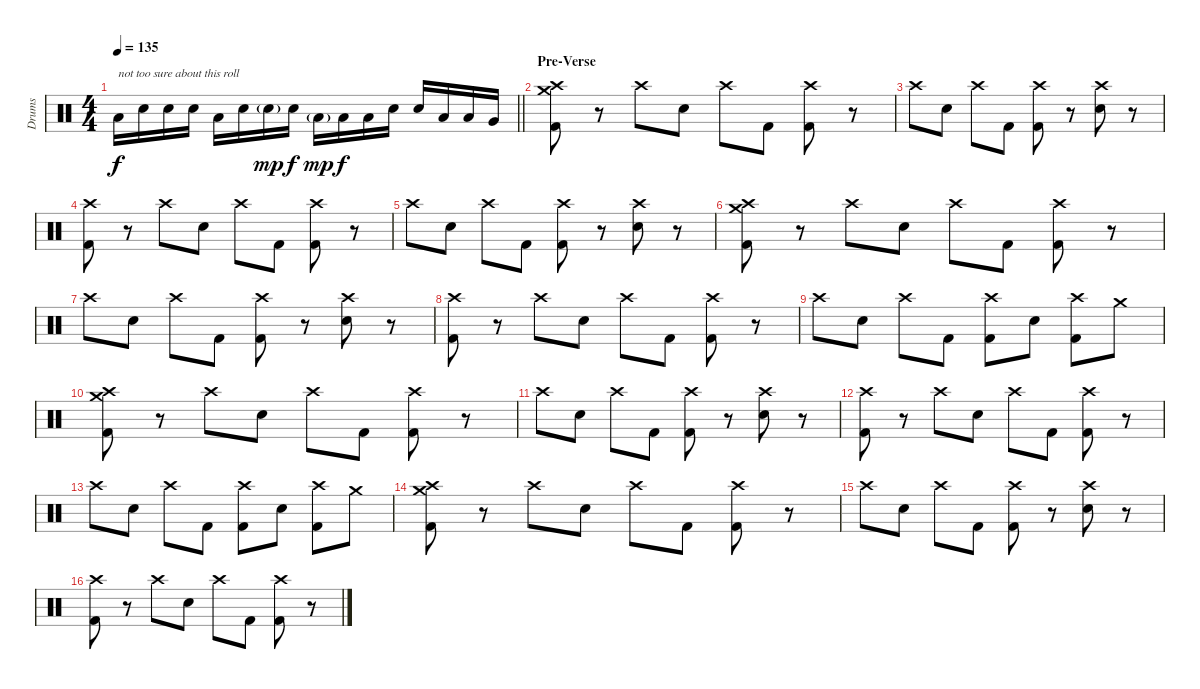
\track ("Drums" "Drums") {instrument percussion}
\staff {score}
\articulation defaults
\ts (4 4)
\tempo 135
\clef neutral
\barLineRight lightlight
\ks c "Low Tom (hit)".16{txt "not too sure about this roll" dy f} "Electric Snare (hit)".16 "Electric Snare (hit)".16 "Electric Snare (hit)".16 "Low Tom (hit)".16 "Electric Snare (hit)".16 "Electric Snare (hit)"{g}.16{dy mp} "Electric Snare (hit)".16{dy f} "Low Tom (hit)"{g}.16{dy mp} "Low Tom (hit)".16{dy f} "Low Tom (hit)".16 "Electric Snare (hit)".16 "Electric Snare (hit)".16 "Low Tom (hit)".16 "Low Tom (hit)".16 "Very Low Tom (hit)".16
|
\section ("" "Pre-Verse")
("Crash high (hit)" "Crash medium (hit)" "Kick (hit) 2").8 r.8 "Crash high (hit)".8 "Electric Snare (hit)".8 "Crash high (hit)".8 "Kick (hit) 2".8 ("Crash high (hit)" "Kick (hit) 2").8 r.8 |
"Crash high (hit)".8 "Electric Snare (hit)".8 "Crash high (hit)".8 "Kick (hit) 2".8 ("Crash high (hit)" "Kick (hit) 2").8 r.8 ("Crash high (hit)" "Electric Snare (hit)").8 r.8 |
("Crash high (hit)" "Kick (hit) 2").8 r.8 "Crash high (hit)".8 "Electric Snare (hit)".8 "Crash high (hit)".8 "Kick (hit) 2".8 ("Crash high (hit)" "Kick (hit) 2").8 r.8 |
"Crash high (hit)".8 "Electric Snare (hit)".8 "Crash high (hit)".8 "Kick (hit) 2".8 ("Crash high (hit)" "Kick (hit) 2").8 r.8 ("Crash high (hit)" "Electric Snare (hit)").8 r.8 |
("Crash high (hit)" "Crash medium (hit)" "Kick (hit) 2").8 r.8 "Crash high (hit)".8 "Electric Snare (hit)".8 "Crash high (hit)".8 "Kick (hit) 2".8 ("Crash high (hit)" "Kick (hit) 2").8 r.8 |
"Crash high (hit)".8 "Electric Snare (hit)".8 "Crash high (hit)".8 "Kick (hit) 2".8 ("Crash high (hit)" "Kick (hit) 2").8 r.8 ("Crash high (hit)" "Electric Snare (hit)").8 r.8 |
("Crash high (hit)" "Kick (hit) 2").8 r.8 "Crash high (hit)".8 "Electric Snare (hit)".8 "Crash high (hit)".8 "Kick (hit) 2".8 ("Crash high (hit)" "Kick (hit) 2").8 r.8 |
"Crash high (hit)".8 "Electric Snare (hit)".8 "Crash high (hit)".8 "Kick (hit) 2".8 ("Crash high (hit)" "Kick (hit) 2").8 "Electric Snare (hit)".8 ("Crash high (hit)" "Kick (hit) 2").8 "Crash medium (hit)".8 |
("Crash high (hit)" "Crash medium (hit)" "Kick (hit) 2").8 r.8 "Crash high (hit)".8 "Electric Snare (hit)".8 "Crash high (hit)".8 "Kick (hit) 2".8 ("Crash high (hit)" "Kick (hit) 2").8 r.8 |
"Crash high (hit)".8 "Electric Snare (hit)".8 "Crash high (hit)".8 "Kick (hit) 2".8 ("Crash high (hit)" "Kick (hit) 2").8 r.8 ("Crash high (hit)" "Electric Snare (hit)").8 r.8 |
("Crash high (hit)" "Kick (hit) 2").8 r.8 "Crash high (hit)".8 "Electric Snare (hit)".8 "Crash high (hit)".8 "Kick (hit) 2".8 ("Crash high (hit)" "Kick (hit) 2").8 r.8 |
"Crash high (hit)".8 "Electric Snare (hit)".8 "Crash high (hit)".8 "Kick (hit) 2".8 ("Crash high (hit)" "Kick (hit) 2").8 "Electric Snare (hit)".8 ("Crash high (hit)" "Kick (hit) 2").8 "Crash medium (hit)".8 |
("Crash high (hit)" "Crash medium (hit)" "Kick (hit) 2").8 r.8 "Crash high (hit)".8 "Electric Snare (hit)".8 "Crash high (hit)".8 "Kick (hit) 2".8 ("Crash high (hit)" "Kick (hit) 2").8 r.8 |
"Crash high (hit)".8 "Electric Snare (hit)".8 "Crash high (hit)".8 "Kick (hit) 2".8 ("Crash high (hit)" "Kick (hit) 2").8 r.8 ("Crash high (hit)" "Electric Snare (hit)").8 r.8 |
("Crash high (hit)" "Kick (hit) 2").8 r.8 "Crash high (hit)".8 "Electric Snare (hit)".8 "Crash high (hit)".8 "Kick (hit) 2".8 ("Crash high (hit)" "Kick (hit) 2").8 r.8
